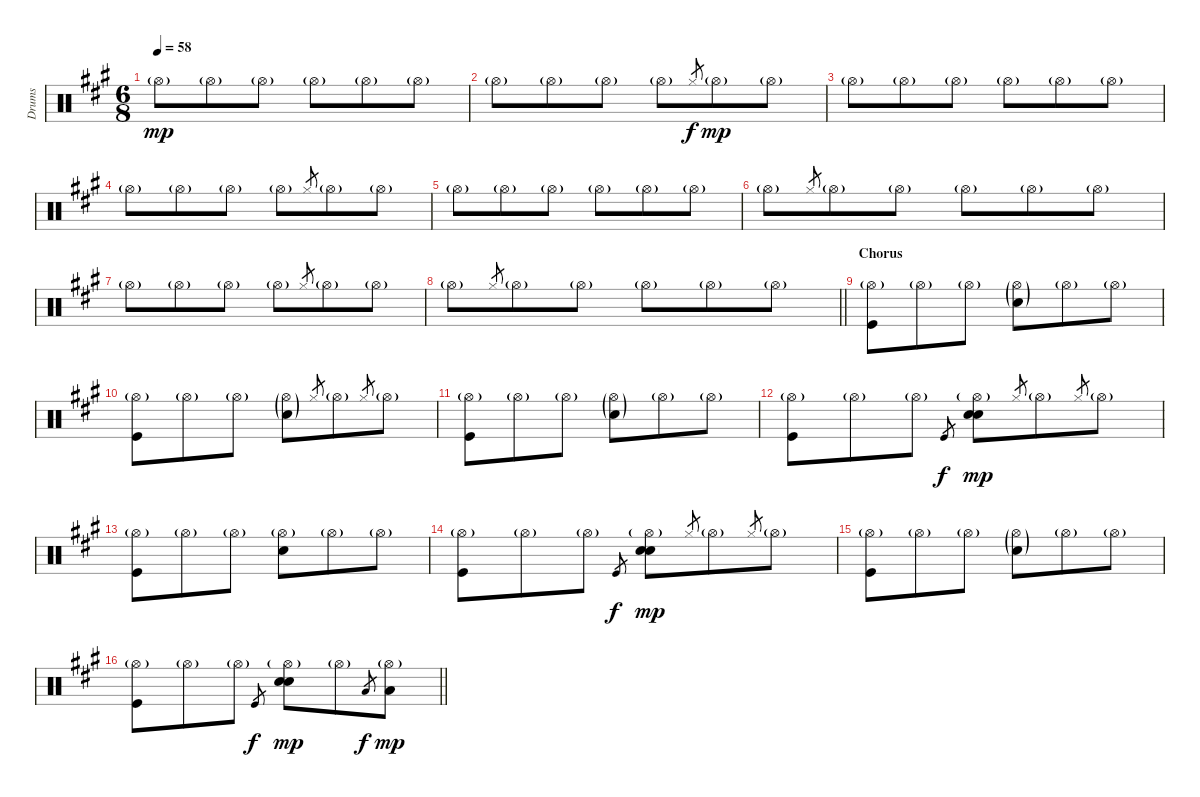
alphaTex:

\track ("Drums" "Drums") {instrument percussion}
\staff {score}
\articulation defaults
\ts (6 8)
\tempo 58
\clef neutral
\ks a "Hi-Hat (open)"{g}.8{dy mp} "Hi-Hat (open)"{g}.8 "Hi-Hat (open)"{g}.8 "Hi-Hat (open)"{g}.8 "Hi-Hat (open)"{g}.8 "Hi-Hat (open)"{g}.8
|
"Hi-Hat (open)"{g}.8 "Hi-Hat (open)"{g}.8 "Hi-Hat (open)"{g}.8 "Hi-Hat (open)"{g}.8 "Hi-Hat (closed)".8{gr dy f} "Hi-Hat (open)"{g}.8{dy mp} "Hi-Hat (open)"{g}.8 |
"Hi-Hat (open)"{g}.8 "Hi-Hat (open)"{g}.8 "Hi-Hat (open)"{g}.8 "Hi-Hat (open)"{g}.8 "Hi-Hat (open)"{g}.8 "Hi-Hat (open)"{g}.8 |
"Hi-Hat (open)"{g}.8 "Hi-Hat (open)"{g}.8 "Hi-Hat (open)"{g}.8 "Hi-Hat (open)"{g}.8 "Hi-Hat (closed)".8{gr} "Hi-Hat (open)"{g}.8 "Hi-Hat (open)"{g}.8 |
"Hi-Hat (open)"{g}.8 "Hi-Hat (open)"{g}.8 "Hi-Hat (open)"{g}.8 "Hi-Hat (open)"{g}.8 "Hi-Hat (open)"{g}.8 "Hi-Hat (open)"{g}.8 |
"Hi-Hat (open)"{g}.8 "Hi-Hat (closed)".8{gr} "Hi-Hat (open)"{g}.8 "Hi-Hat (open)"{g}.8 "Hi-Hat (open)"{g}.8 "Hi-Hat (open)"{g}.8 "Hi-Hat (open)"{g}.8 |
"Hi-Hat (open)"{g}.8 "Hi-Hat (open)"{g}.8 "Hi-Hat (open)"{g}.8 "Hi-Hat (open)"{g}.8 "Hi-Hat (closed)".8{gr} "Hi-Hat (open)"{g}.8 "Hi-Hat (open)"{g}.8 |
\barLineRight lightlight "Hi-Hat (open)"{g}.8 "Hi-Hat (closed)".8{gr} "Hi-Hat (open)"{g}.8 "Hi-Hat (open)"{g}.8 "Hi-Hat (open)"{g}.8 "Hi-Hat (open)"{g}.8 "Hi-Hat (open)"{g}.8
|
\section ("" "Chorus")
("Hi-Hat (open)"{g} "Kick (hit)").8 "Hi-Hat (open)"{g}.8 "Hi-Hat (open)"{g}.8 ("Hi-Hat (open)"{g} "Snare (hit) 2"{g}).8 "Hi-Hat (open)"{g}.8 "Hi-Hat (open)"{g}.8 |
("Hi-Hat (open)"{g} "Kick (hit)").8 "Hi-Hat (open)"{g}.8 "Hi-Hat (open)"{g}.8 ("Hi-Hat (open)"{g} "Snare (hit) 2"{g}).8 "Hi-Hat (closed)".8{gr} "Hi-Hat (open)"{g}.8 "Hi-Hat (closed)".8{gr} "Hi-Hat (open)"{g}.8 |
("Hi-Hat (open)"{g} "Kick (hit)").8 "Hi-Hat (open)"{g}.8 "Hi-Hat (open)"{g}.8 ("Hi-Hat (open)"{g} "Snare (hit) 2"{g}).8 "Hi-Hat (open)"{g}.8 "Hi-Hat (open)"{g}.8 |
("Hi-Hat (open)"{g} "Kick (hit)").8 "Hi-Hat (open)"{g}.8 "Hi-Hat (open)"{g}.8 "Kick (hit)".8{gr dy f} ("Hi-Hat (open)"{g} "Electric Snare (hit)" "Snare (hit) 2").8{dy mp} "Hi-Hat (closed)".8{gr} "Hi-Hat (open)"{g}.8 "Hi-Hat (closed)".8{gr} "Hi-Hat (open)"{g}.8 |
("Hi-Hat (open)"{g} "Kick (hit)").8 "Hi-Hat (open)"{g}.8 "Hi-Hat (open)"{g}.8 ("Hi-Hat (open)"{g} "Snare (hit) 2").8 "Hi-Hat (open)"{g}.8 "Hi-Hat (open)"{g}.8 |
("Hi-Hat (open)"{g} "Kick (hit)").8 "Hi-Hat (open)"{g}.8 "Hi-Hat (open)"{g}.8 "Kick (hit)".8{gr dy f} ("Hi-Hat (open)"{g} "Electric Snare (hit)" "Snare (hit) 2").8{dy mp} "Hi-Hat (closed)".8{gr} "Hi-Hat (open)"{g}.8 "Hi-Hat (closed)".8{gr} "Hi-Hat (open)"{g}.8 |
("Hi-Hat (open)"{g} "Kick (hit)").8 "Hi-Hat (open)"{g}.8 "Hi-Hat (open)"{g}.8 ("Hi-Hat (open)"{g} "Snare (hit) 2"{g}).8 "Hi-Hat (open)"{g}.8 "Hi-Hat (open)"{g}.8 |
\barLineRight lightlight
("Hi-Hat (open)"{g} "Kick (hit)").8 "Hi-Hat (open)"{g}.8 "Hi-Hat (open)"{g}.8 "Kick (hit)".8{gr dy f} ("Hi-Hat (open)"{g} "Electric Snare (hit)" "Snare (hit) 2").8{dy mp} "Hi-Hat (open)"{g}.8 "Low Floor Tom (hit)".8{gr dy f} ("Hi-Hat (open)"{g} "Low Floor Tom (hit)").8{dy mp}
